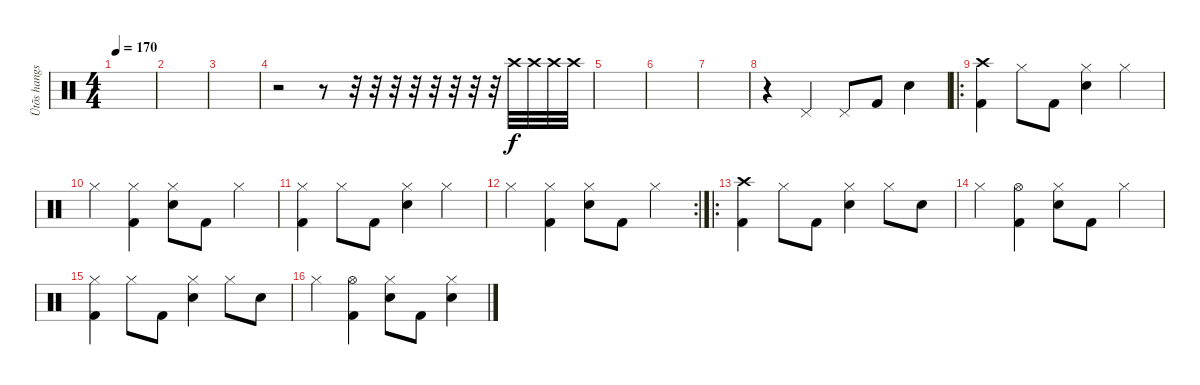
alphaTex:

\track ("Ütõs hangszer" "Ütõs hangs") {instrument percussion}
\staff {score}
\articulation defaults
\ts (4 4)
\tempo 170
\clef neutral
\ks c
|
|
|
r.2 r.8 r.32 r.32 r.32 r.32 r.32 r.32 r.32 r.32 "Crash high (hit)".32 "Crash high (hit)".32 "Crash high (hit)".32 "Crash high (hit)".32 |
|
|
|
r.4 "Pedal Hi-Hat (hit)".4 "Pedal Hi-Hat (hit)".8 "Kick (hit) 2".8 "Electric Snare (hit)".4 |
\ro
("Crash high (hit)" "Kick (hit) 2").4 "Hi-Hat (closed)".8 "Kick (hit) 2".8 ("Hi-Hat (closed)" "Electric Snare (hit)").4 "Hi-Hat (closed)".4 |
"Hi-Hat (closed)".4 ("Hi-Hat (closed)" "Kick (hit) 2").4 ("Hi-Hat (closed)" "Electric Snare (hit)").8 "Kick (hit) 2".8 "Hi-Hat (closed)".4 |
("Hi-Hat (closed)" "Kick (hit) 2").4 "Hi-Hat (closed)".8 "Kick (hit) 2".8 ("Hi-Hat (closed)" "Electric Snare (hit)").4 "Hi-Hat (closed)".4 |
\rc 2 "Hi-Hat (closed)".4
("Hi-Hat (closed)" "Kick (hit) 2").4 ("Hi-Hat (closed)" "Electric Snare (hit)").8 "Kick (hit) 2".8 "Hi-Hat (closed)".4 |
\ro
("Crash high (hit)" "Kick (hit) 2").4 "Hi-Hat (closed)".8 "Kick (hit) 2".8 ("Hi-Hat (closed)" "Electric Snare (hit)").4 "Hi-Hat (closed)".8 "Electric Snare (hit)".8 |
"Hi-Hat (closed)".4 ("Hi-Hat (open)" "Kick (hit) 2").4 ("Hi-Hat (closed)" "Electric Snare (hit)").8 "Kick (hit) 2".8 "Hi-Hat (closed)".4 |
("Hi-Hat (closed)" "Kick (hit) 2").4 "Hi-Hat (closed)".8 "Kick (hit) 2".8 ("Hi-Hat (closed)" "Electric Snare (hit)").4 "Hi-Hat (closed)".8 "Electric Snare (hit)".8 |
"Hi-Hat (closed)".4 ("Hi-Hat (open)" "Kick (hit) 2").4 ("Hi-Hat (closed)" "Electric Snare (hit)").8 "Kick (hit) 2".8 ("Hi-Hat (closed)" "Electric Snare (hit)").4
